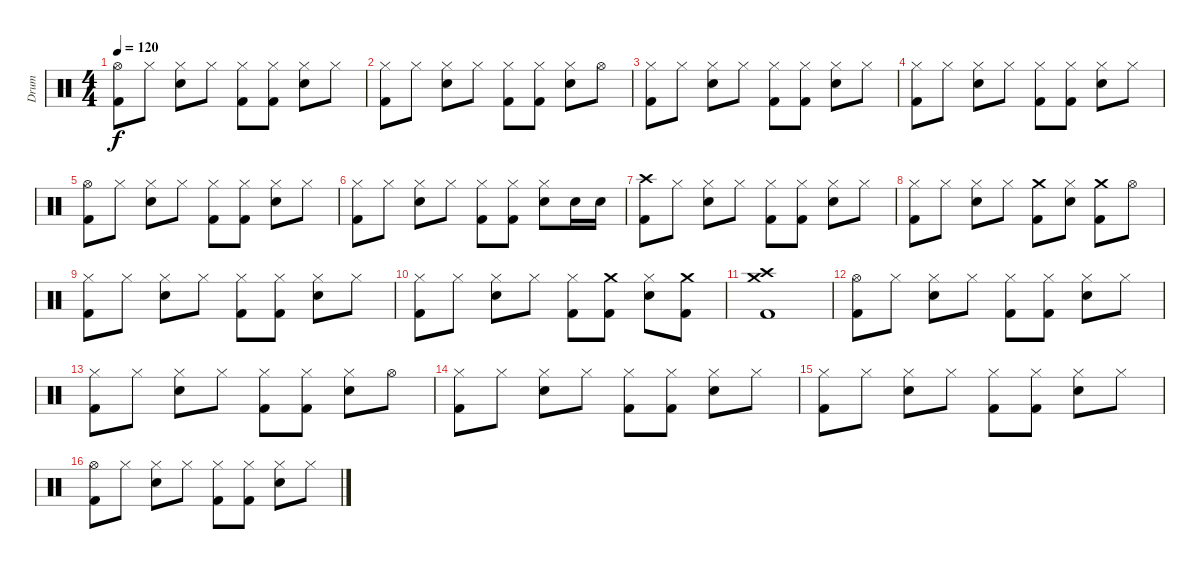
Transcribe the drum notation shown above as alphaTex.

\track ("Drum" "Drum") {instrument percussion}
\staff {score}
\articulation defaults
\ts (4 4)
\tempo 120
\clef neutral
\ks c
("Hi-Hat (open)" "Kick (hit) 2").8{dy f} "Hi-Hat (closed)".8 ("Hi-Hat (closed)" "Electric Snare (hit)").8 "Hi-Hat (closed)".8 ("Hi-Hat (closed)" "Kick (hit) 2").8 ("Hi-Hat (closed)" "Kick (hit) 2").8 ("Hi-Hat (closed)" "Electric Snare (hit)").8 "Hi-Hat (closed)".8 |
("Hi-Hat (closed)" "Kick (hit) 2").8 "Hi-Hat (closed)".8 ("Hi-Hat (closed)" "Electric Snare (hit)").8 "Hi-Hat (closed)".8 ("Hi-Hat (closed)" "Kick (hit) 2").8 ("Hi-Hat (closed)" "Kick (hit) 2").8 ("Hi-Hat (closed)" "Electric Snare (hit)").8 "Hi-Hat (open)".8 |
("Hi-Hat (closed)" "Kick (hit) 2").8 "Hi-Hat (closed)".8 ("Hi-Hat (closed)" "Electric Snare (hit)").8 "Hi-Hat (closed)".8 ("Hi-Hat (closed)" "Kick (hit) 2").8 ("Hi-Hat (closed)" "Kick (hit) 2").8 ("Hi-Hat (closed)" "Electric Snare (hit)").8 "Hi-Hat (closed)".8 |
("Hi-Hat (closed)" "Kick (hit) 2").8 "Hi-Hat (closed)".8 ("Hi-Hat (closed)" "Electric Snare (hit)").8 "Hi-Hat (closed)".8 ("Hi-Hat (closed)" "Kick (hit) 2").8 ("Hi-Hat (closed)" "Kick (hit) 2").8 ("Hi-Hat (closed)" "Electric Snare (hit)").8 "Hi-Hat (closed)".8 |
("Hi-Hat (open)" "Kick (hit) 2").8 "Hi-Hat (closed)".8 ("Hi-Hat (closed)" "Electric Snare (hit)").8 "Hi-Hat (closed)".8 ("Hi-Hat (closed)" "Kick (hit) 2").8 ("Hi-Hat (closed)" "Kick (hit) 2").8 ("Hi-Hat (closed)" "Electric Snare (hit)").8 "Hi-Hat (closed)".8 |
("Hi-Hat (closed)" "Kick (hit) 2").8 "Hi-Hat (closed)".8 ("Hi-Hat (closed)" "Electric Snare (hit)").8 "Hi-Hat (closed)".8 ("Hi-Hat (closed)" "Kick (hit) 2").8 ("Hi-Hat (closed)" "Kick (hit) 2").8 ("Hi-Hat (closed)" "Electric Snare (hit)").8 "Electric Snare (hit)".16 "Electric Snare (hit)".16 |
("Crash high (hit)" "Kick (hit) 2").8 "Hi-Hat (closed)".8 ("Hi-Hat (closed)" "Electric Snare (hit)").8 "Hi-Hat (closed)".8 ("Hi-Hat (closed)" "Kick (hit) 2").8 ("Hi-Hat (closed)" "Kick (hit) 2").8 ("Hi-Hat (closed)" "Electric Snare (hit)").8 "Hi-Hat (closed)".8 |
("Hi-Hat (closed)" "Kick (hit) 2").8 "Hi-Hat (closed)".8 ("Hi-Hat (closed)" "Electric Snare (hit)").8 "Hi-Hat (closed)".8 ("Crash medium (hit)" "Kick (hit) 2").8 ("Hi-Hat (closed)" "Electric Snare (hit)").8 ("Crash medium (hit)" "Kick (hit) 2").8 "Hi-Hat (open)".8 |
("Hi-Hat (closed)" "Kick (hit) 2").8 "Hi-Hat (closed)".8 ("Hi-Hat (closed)" "Electric Snare (hit)").8 "Hi-Hat (closed)".8 ("Hi-Hat (closed)" "Kick (hit) 2").8 ("Hi-Hat (closed)" "Kick (hit) 2").8 ("Hi-Hat (closed)" "Electric Snare (hit)").8 "Hi-Hat (closed)".8 |
("Hi-Hat (closed)" "Kick (hit) 2").8 "Hi-Hat (closed)".8 ("Hi-Hat (closed)" "Electric Snare (hit)").8 "Hi-Hat (closed)".8 ("Hi-Hat (closed)" "Kick (hit) 2").8 ("Crash medium (hit)" "Kick (hit) 2").8 ("Hi-Hat (closed)" "Electric Snare (hit)").8 ("Crash medium (hit)" "Kick (hit) 2").8 |
("Crash medium (hit)" "Crash high (hit)" "Kick (hit) 2").1 |
("Hi-Hat (open)" "Kick (hit) 2").8 "Hi-Hat (closed)".8 ("Hi-Hat (closed)" "Electric Snare (hit)").8 "Hi-Hat (closed)".8 ("Hi-Hat (closed)" "Kick (hit) 2").8 ("Hi-Hat (closed)" "Kick (hit) 2").8 ("Hi-Hat (closed)" "Electric Snare (hit)").8 "Hi-Hat (closed)".8 |
("Hi-Hat (closed)" "Kick (hit) 2").8 "Hi-Hat (closed)".8 ("Hi-Hat (closed)" "Electric Snare (hit)").8 "Hi-Hat (closed)".8 ("Hi-Hat (closed)" "Kick (hit) 2").8 ("Hi-Hat (closed)" "Kick (hit) 2").8 ("Hi-Hat (closed)" "Electric Snare (hit)").8 "Hi-Hat (open)".8 |
("Hi-Hat (closed)" "Kick (hit) 2").8 "Hi-Hat (closed)".8 ("Hi-Hat (closed)" "Electric Snare (hit)").8 "Hi-Hat (closed)".8 ("Hi-Hat (closed)" "Kick (hit) 2").8 ("Hi-Hat (closed)" "Kick (hit) 2").8 ("Hi-Hat (closed)" "Electric Snare (hit)").8 "Hi-Hat (closed)".8 |
("Hi-Hat (closed)" "Kick (hit) 2").8 "Hi-Hat (closed)".8 ("Hi-Hat (closed)" "Electric Snare (hit)").8 "Hi-Hat (closed)".8 ("Hi-Hat (closed)" "Kick (hit) 2").8 ("Hi-Hat (closed)" "Kick (hit) 2").8 ("Hi-Hat (closed)" "Electric Snare (hit)").8 "Hi-Hat (closed)".8 |
("Hi-Hat (open)" "Kick (hit) 2").8 "Hi-Hat (closed)".8 ("Hi-Hat (closed)" "Electric Snare (hit)").8 "Hi-Hat (closed)".8 ("Hi-Hat (closed)" "Kick (hit) 2").8 ("Hi-Hat (closed)" "Kick (hit) 2").8 ("Hi-Hat (closed)" "Electric Snare (hit)").8 "Hi-Hat (closed)".8
